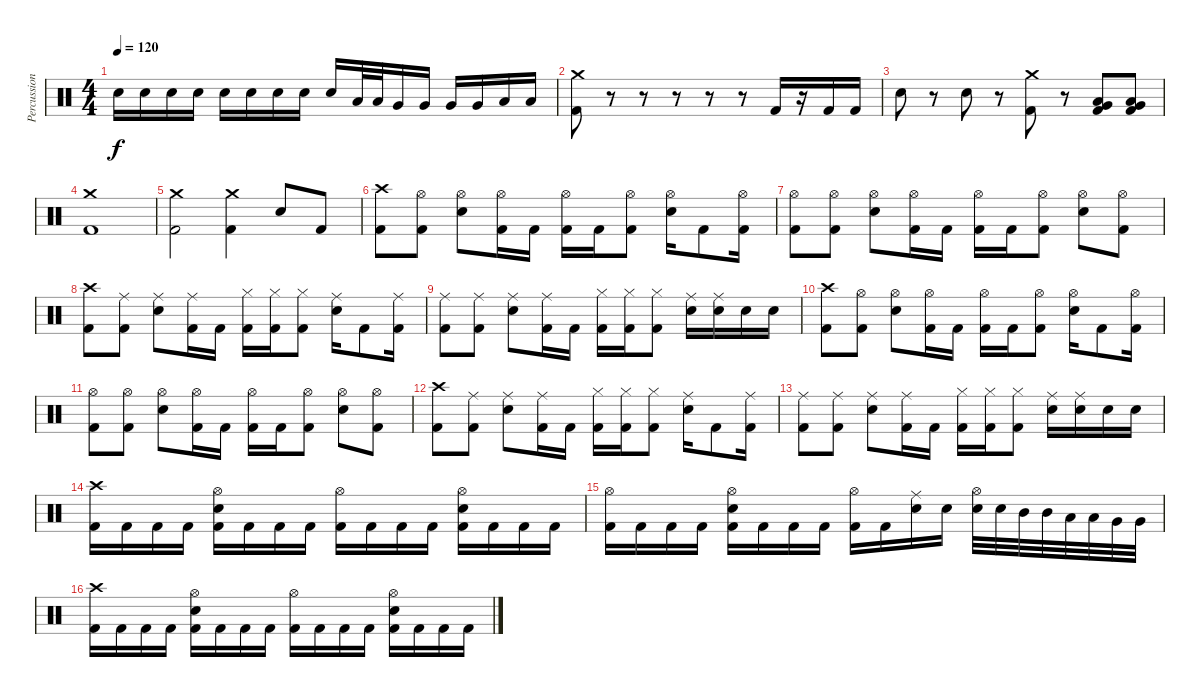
\track ("Percussion" "Percussion") {instrument percussion}
\staff {score}
\articulation defaults
\ts (4 4)
\tempo 120
\clef neutral
\ks c "Snare (hit) 2".16{dy f} "Snare (hit) 2".16 "Snare (hit) 2".16 "Snare (hit) 2".16 "Snare (hit) 2".16 "Snare (hit) 2".16 "Snare (hit) 2".16 "Snare (hit) 2".16 "Snare (hit) 2".16 "Low Tom (hit)".32 "Low Tom (hit)".32 "Very Low Tom (hit)".16 "Very Low Tom (hit)".16 "Very Low Tom (hit)".16 "Very Low Tom (hit)".16 "Low Floor Tom (hit)".16 "Low Floor Tom (hit)".16
|
("Crash medium (hit)" "Kick (hit) 2").8 r.8 r.8 r.8 r.8 r.8 "Kick (hit) 2".16 r.16 "Kick (hit) 2".16 "Kick (hit) 2".16 |
"Snare (hit) 2".8 r.8 "Snare (hit) 2".8 r.8 ("Crash medium (hit)" "Kick (hit) 2").8 r.8 ("Very Low Tom (hit)" "Low Floor Tom (hit)" "Kick (hit) 2").8 ("Very Low Tom (hit)" "Low Floor Tom (hit)" "Kick (hit) 2").8 |
("Crash medium (hit)" "Kick (hit) 2").1 |
("Crash medium (hit)" "Kick (hit) 2").2 ("Crash medium (hit)" "Kick (hit) 2").4 "Snare (hit) 2".8 "Kick (hit) 2".8 |
("Crash high (hit)" "Kick (hit) 2").8 ("Hi-Hat (open)" "Kick (hit) 2").8 ("Hi-Hat (open)" "Snare (hit) 2").8 ("Hi-Hat (open)" "Kick (hit) 2").16 "Kick (hit) 2".16 ("Hi-Hat (open)" "Kick (hit) 2").16 "Kick (hit) 2".16 ("Hi-Hat (open)" "Kick (hit) 2").8 ("Hi-Hat (open)" "Snare (hit) 2").16 "Kick (hit) 2".8 ("Hi-Hat (open)" "Kick (hit) 2").16 |
("Hi-Hat (open)" "Kick (hit) 2").8 ("Hi-Hat (open)" "Kick (hit) 2").8 ("Hi-Hat (open)" "Snare (hit) 2").8 ("Hi-Hat (open)" "Kick (hit) 2").16 "Kick (hit) 2".16 ("Hi-Hat (open)" "Kick (hit) 2").16 "Kick (hit) 2".16 ("Hi-Hat (open)" "Kick (hit) 2").8 ("Hi-Hat (open)" "Snare (hit) 2").8 ("Hi-Hat (open)" "Kick (hit) 2").8 |
("Crash high (hit)" "Kick (hit) 2").8 ("Ride (middle)" "Kick (hit) 2").8 ("Ride (middle)" "Snare (hit) 2").8 ("Ride (middle)" "Kick (hit) 2").16 "Kick (hit) 2".16 ("Hi-Hat (closed)" "Kick (hit) 2").16 ("Hi-Hat (closed)" "Kick (hit) 2").16 ("Hi-Hat (closed)" "Kick (hit) 2").8 ("Ride (middle)" "Snare (hit) 2").16 "Kick (hit) 2".8 ("Ride (middle)" "Kick (hit) 2").16 |
("Ride (middle)" "Kick (hit) 2").8 ("Ride (middle)" "Kick (hit) 2").8 ("Ride (middle)" "Snare (hit) 2").8 ("Ride (middle)" "Kick (hit) 2").16 "Kick (hit) 2".16 ("Hi-Hat (closed)" "Kick (hit) 2").16 ("Hi-Hat (closed)" "Kick (hit) 2").16 ("Hi-Hat (closed)" "Kick (hit) 2").8 ("Ride (middle)" "Snare (hit) 2").16 ("Ride (middle)" "Snare (hit) 2").16 "Snare (hit) 2".16 "Snare (hit) 2".16 |
("Crash high (hit)" "Kick (hit) 2").8 ("Hi-Hat (open)" "Kick (hit) 2").8 ("Hi-Hat (open)" "Snare (hit) 2").8 ("Hi-Hat (open)" "Kick (hit) 2").16 "Kick (hit) 2".16 ("Hi-Hat (open)" "Kick (hit) 2").16 "Kick (hit) 2".16 ("Hi-Hat (open)" "Kick (hit) 2").8 ("Hi-Hat (open)" "Snare (hit) 2").16 "Kick (hit) 2".8 ("Hi-Hat (open)" "Kick (hit) 2").16 |
("Hi-Hat (open)" "Kick (hit) 2").8 ("Hi-Hat (open)" "Kick (hit) 2").8 ("Hi-Hat (open)" "Snare (hit) 2").8 ("Hi-Hat (open)" "Kick (hit) 2").16 "Kick (hit) 2".16 ("Hi-Hat (open)" "Kick (hit) 2").16 "Kick (hit) 2".16 ("Hi-Hat (open)" "Kick (hit) 2").8 ("Hi-Hat (open)" "Snare (hit) 2").8 ("Hi-Hat (open)" "Kick (hit) 2").8 |
("Crash high (hit)" "Kick (hit) 2").8 ("Ride (middle)" "Kick (hit) 2").8 ("Ride (middle)" "Snare (hit) 2").8 ("Ride (middle)" "Kick (hit) 2").16 "Kick (hit) 2".16 ("Hi-Hat (closed)" "Kick (hit) 2").16 ("Hi-Hat (closed)" "Kick (hit) 2").16 ("Hi-Hat (closed)" "Kick (hit) 2").8 ("Ride (middle)" "Snare (hit) 2").16 "Kick (hit) 2".8 ("Ride (middle)" "Kick (hit) 2").16 |
("Ride (middle)" "Kick (hit) 2").8 ("Ride (middle)" "Kick (hit) 2").8 ("Ride (middle)" "Snare (hit) 2").8 ("Ride (middle)" "Kick (hit) 2").16 "Kick (hit) 2".16 ("Hi-Hat (closed)" "Kick (hit) 2").16 ("Hi-Hat (closed)" "Kick (hit) 2").16 ("Hi-Hat (closed)" "Kick (hit) 2").8 ("Ride (middle)" "Snare (hit) 2").16 ("Ride (middle)" "Snare (hit) 2").16 "Snare (hit) 2".16 "Snare (hit) 2".16 |
("Crash high (hit)" "Kick (hit) 2").16 "Kick (hit) 2".16 "Kick (hit) 2".16 "Kick (hit) 2".16 ("Hi-Hat (open)" "Snare (hit) 2" "Kick (hit) 2").16 "Kick (hit) 2".16 "Kick (hit) 2".16 "Kick (hit) 2".16 ("Hi-Hat (open)" "Kick (hit) 2").16 "Kick (hit) 2".16 "Kick (hit) 2".16 "Kick (hit) 2".16 ("Hi-Hat (open)" "Snare (hit) 2" "Kick (hit) 2").16 "Kick (hit) 2".16 "Kick (hit) 2".16 "Kick (hit) 2".16 |
("Hi-Hat (open)" "Kick (hit) 2").16 "Kick (hit) 2".16 "Kick (hit) 2".16 "Kick (hit) 2".16 ("Hi-Hat (open)" "Snare (hit) 2" "Kick (hit) 2").16 "Kick (hit) 2".16 "Kick (hit) 2".16 "Kick (hit) 2".16 ("Hi-Hat (open)" "Kick (hit) 2").16 "Kick (hit) 2".16 ("Ride (middle)" "Snare (hit) 2").16 "Snare (hit) 2".16 ("Hi-Hat (open)" "Snare (hit) 2").32 "Snare (hit) 2".32 "Mid Tom (hit)".32 "Mid Tom (hit)".32 "Low Tom (hit)".32 "Low Tom (hit)".32 "Very Low Tom (hit)".32 "Very Low Tom (hit)".32 |
("Crash high (hit)" "Kick (hit) 2").16 "Kick (hit) 2".16 "Kick (hit) 2".16 "Kick (hit) 2".16 ("Hi-Hat (open)" "Snare (hit) 2" "Kick (hit) 2").16 "Kick (hit) 2".16 "Kick (hit) 2".16 "Kick (hit) 2".16 ("Hi-Hat (open)" "Kick (hit) 2").16 "Kick (hit) 2".16 "Kick (hit) 2".16 "Kick (hit) 2".16 ("Hi-Hat (open)" "Snare (hit) 2" "Kick (hit) 2").16 "Kick (hit) 2".16 "Kick (hit) 2".16 "Kick (hit) 2".16
